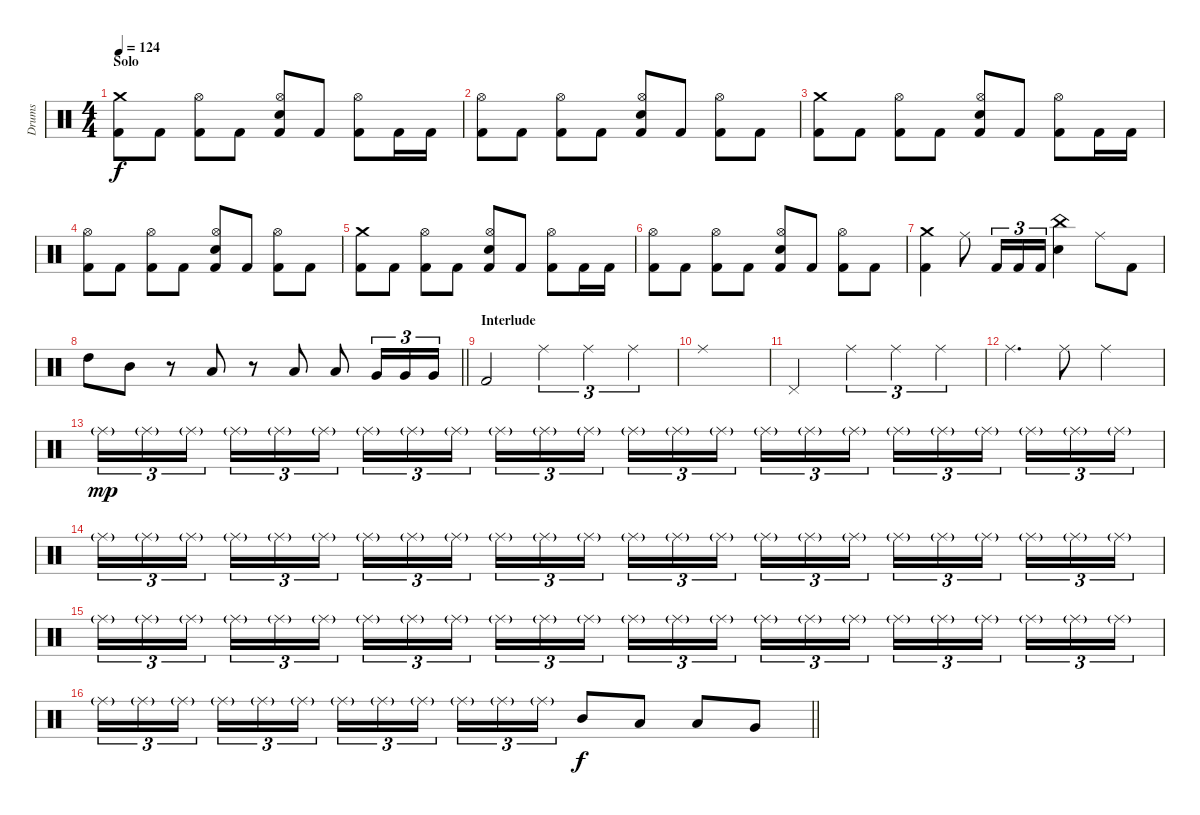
\track ("Drums" "Drums") {instrument percussion}
\staff {score}
\articulation defaults
\ts (4 4)
\section ("" "Solo")
\tempo 124
\clef neutral
\ks c
("Crash medium (hit)" "Kick (hit) 2").8{dy f} "Kick (hit) 2".8 ("Hi-Hat (open)" "Kick (hit) 2").8 "Kick (hit) 2".8 ("Hi-Hat (open)" "Electric Snare (hit)" "Kick (hit) 2").8 "Kick (hit) 2".8 ("Hi-Hat (open)" "Kick (hit) 2").8 "Kick (hit) 2".16 "Kick (hit) 2".16 |
("Hi-Hat (open)" "Kick (hit) 2").8 "Kick (hit) 2".8 ("Hi-Hat (open)" "Kick (hit) 2").8 "Kick (hit) 2".8 ("Hi-Hat (open)" "Electric Snare (hit)" "Kick (hit) 2").8 "Kick (hit) 2".8 ("Hi-Hat (open)" "Kick (hit) 2").8 "Kick (hit) 2".8 |
("Crash medium (hit)" "Kick (hit) 2").8 "Kick (hit) 2".8 ("Hi-Hat (open)" "Kick (hit) 2").8 "Kick (hit) 2".8 ("Hi-Hat (open)" "Electric Snare (hit)" "Kick (hit) 2").8 "Kick (hit) 2".8 ("Hi-Hat (open)" "Kick (hit) 2").8 "Kick (hit) 2".16 "Kick (hit) 2".16 |
("Hi-Hat (open)" "Kick (hit) 2").8 "Kick (hit) 2".8 ("Hi-Hat (open)" "Kick (hit) 2").8 "Kick (hit) 2".8 ("Hi-Hat (open)" "Electric Snare (hit)" "Kick (hit) 2").8 "Kick (hit) 2".8 ("Hi-Hat (open)" "Kick (hit) 2").8 "Kick (hit) 2".8 |
("Crash medium (hit)" "Kick (hit) 2").8 "Kick (hit) 2".8 ("Hi-Hat (open)" "Kick (hit) 2").8 "Kick (hit) 2".8 ("Hi-Hat (open)" "Electric Snare (hit)" "Kick (hit) 2").8 "Kick (hit) 2".8 ("Hi-Hat (open)" "Kick (hit) 2").8 "Kick (hit) 2".16 "Kick (hit) 2".16 |
("Hi-Hat (open)" "Kick (hit) 2").8 "Kick (hit) 2".8 ("Hi-Hat (open)" "Kick (hit) 2").8 "Kick (hit) 2".8 ("Hi-Hat (open)" "Electric Snare (hit)" "Kick (hit) 2").8 "Kick (hit) 2".8 ("Hi-Hat (open)" "Kick (hit) 2").8 "Kick (hit) 2".8 |
("Crash medium (hit)" "Kick (hit) 2").4 "Ride (middle)".8 "Kick (hit) 2".16{tu (3 2)} "Kick (hit) 2".16{tu (3 2)} "Kick (hit) 2".16{tu (3 2)} ("China (hit)" "Electric Snare (hit)").4 "Ride (middle)".8 "Kick (hit) 2".8 |
\barLineRight lightlight "High Tom (hit)".8 "Mid Tom (hit)".8
r.8 "Low Tom (hit)".8 r.8 "Low Tom (hit)".8 "Low Tom (hit)".8 "Very Low Tom (hit)".16{tu (3 2)} "Very Low Tom (hit)".16{tu (3 2)} "Very Low Tom (hit)".16{tu (3 2)} |
\section ("" "Interlude")
"Kick (hit) 2".2 "Ride (middle)".4{tu (3 2)} "Ride (middle)".4{tu (3 2)} "Ride (middle)".4{tu (3 2)} |
"Ride (middle)".1 |
"Pedal Hi-Hat (hit)".2 "Ride (middle)".4{tu (3 2)} "Ride (middle)".4{tu (3 2)} "Ride (middle)".4{tu (3 2)} |
"Ride (middle)".4{d} "Ride (middle)".8 "Ride (middle)".2 |
"Ride (middle)"{g}.16{tu (3 2) dy mp} "Ride (middle)"{g}.16{tu (3 2)} "Ride (middle)"{g}.16{tu (3 2)} "Ride (middle)"{g}.16{tu (3 2)} "Ride (middle)"{g}.16{tu (3 2)} "Ride (middle)"{g}.16{tu (3 2)} "Ride (middle)"{g}.16{tu (3 2)} "Ride (middle)"{g}.16{tu (3 2)} "Ride (middle)"{g}.16{tu (3 2)} "Ride (middle)"{g}.16{tu (3 2)} "Ride (middle)"{g}.16{tu (3 2)} "Ride (middle)"{g}.16{tu (3 2)} "Ride (middle)"{g}.16{tu (3 2)} "Ride (middle)"{g}.16{tu (3 2)} "Ride (middle)"{g}.16{tu (3 2)} "Ride (middle)"{g}.16{tu (3 2)} "Ride (middle)"{g}.16{tu (3 2)} "Ride (middle)"{g}.16{tu (3 2)} "Ride (middle)"{g}.16{tu (3 2)} "Ride (middle)"{g}.16{tu (3 2)} "Ride (middle)"{g}.16{tu (3 2)} "Ride (middle)"{g}.16{tu (3 2)} "Ride (middle)"{g}.16{tu (3 2)} "Ride (middle)"{g}.16{tu (3 2)} |
"Ride (middle)"{g}.16{tu (3 2)} "Ride (middle)"{g}.16{tu (3 2)} "Ride (middle)"{g}.16{tu (3 2)} "Ride (middle)"{g}.16{tu (3 2)} "Ride (middle)"{g}.16{tu (3 2)} "Ride (middle)"{g}.16{tu (3 2)} "Ride (middle)"{g}.16{tu (3 2)} "Ride (middle)"{g}.16{tu (3 2)} "Ride (middle)"{g}.16{tu (3 2)} "Ride (middle)"{g}.16{tu (3 2)} "Ride (middle)"{g}.16{tu (3 2)} "Ride (middle)"{g}.16{tu (3 2)} "Ride (middle)"{g}.16{tu (3 2)} "Ride (middle)"{g}.16{tu (3 2)} "Ride (middle)"{g}.16{tu (3 2)} "Ride (middle)"{g}.16{tu (3 2)} "Ride (middle)"{g}.16{tu (3 2)} "Ride (middle)"{g}.16{tu (3 2)} "Ride (middle)"{g}.16{tu (3 2)} "Ride (middle)"{g}.16{tu (3 2)} "Ride (middle)"{g}.16{tu (3 2)} "Ride (middle)"{g}.16{tu (3 2)} "Ride (middle)"{g}.16{tu (3 2)} "Ride (middle)"{g}.16{tu (3 2)} |
"Ride (middle)"{g}.16{tu (3 2)} "Ride (middle)"{g}.16{tu (3 2)} "Ride (middle)"{g}.16{tu (3 2)} "Ride (middle)"{g}.16{tu (3 2)} "Ride (middle)"{g}.16{tu (3 2)} "Ride (middle)"{g}.16{tu (3 2)} "Ride (middle)"{g}.16{tu (3 2)} "Ride (middle)"{g}.16{tu (3 2)} "Ride (middle)"{g}.16{tu (3 2)} "Ride (middle)"{g}.16{tu (3 2)} "Ride (middle)"{g}.16{tu (3 2)} "Ride (middle)"{g}.16{tu (3 2)} "Ride (middle)"{g}.16{tu (3 2)} "Ride (middle)"{g}.16{tu (3 2)} "Ride (middle)"{g}.16{tu (3 2)} "Ride (middle)"{g}.16{tu (3 2)} "Ride (middle)"{g}.16{tu (3 2)} "Ride (middle)"{g}.16{tu (3 2)} "Ride (middle)"{g}.16{tu (3 2)} "Ride (middle)"{g}.16{tu (3 2)} "Ride (middle)"{g}.16{tu (3 2)} "Ride (middle)"{g}.16{tu (3 2)} "Ride (middle)"{g}.16{tu (3 2)} "Ride (middle)"{g}.16{tu (3 2)} |
\barLineRight lightlight "Ride (middle)"{g}.16{tu (3 2)} "Ride (middle)"{g}.16{tu (3 2)} "Ride (middle)"{g}.16{tu (3 2)} "Ride (middle)"{g}.16{tu (3 2)} "Ride (middle)"{g}.16{tu (3 2)} "Ride (middle)"{g}.16{tu (3 2)} "Ride (middle)"{g}.16{tu (3 2)} "Ride (middle)"{g}.16{tu (3 2)} "Ride (middle)"{g}.16{tu (3 2)} "Ride (middle)"{g}.16{tu (3 2)} "Ride (middle)"{g}.16{tu (3 2)} "Ride (middle)"{g}.16{tu (3 2)} "Mid Tom (hit)".8{dy f} "Low Tom (hit)".8 "Low Tom (hit)".8 "Very Low Tom (hit)".8
